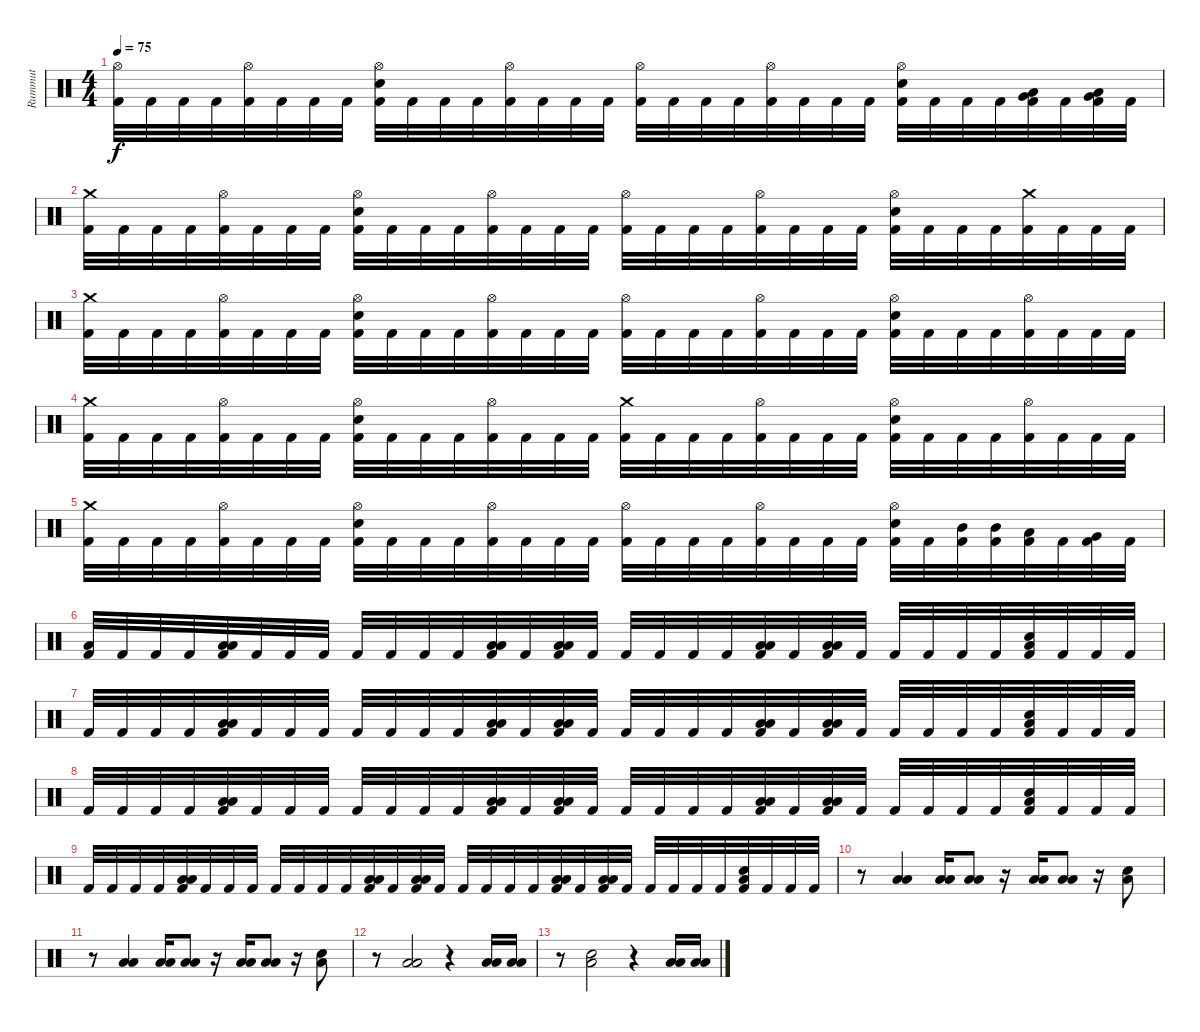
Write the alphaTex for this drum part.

\track ("Rummut" "Rummut") {instrument percussion}
\staff {score}
\articulation defaults
\ts (4 4)
\tempo 75
\clef neutral
\ks c
("Hi-Hat (open)" "Kick (hit) 2").32{dy f} "Kick (hit) 2".32 "Kick (hit) 2".32 "Kick (hit) 2".32 ("Hi-Hat (open)" "Kick (hit) 2").32 "Kick (hit) 2".32 "Kick (hit) 2".32 "Kick (hit) 2".32 ("Hi-Hat (open)" "Snare (hit) 2" "Kick (hit) 2").32 "Kick (hit) 2".32 "Kick (hit) 2".32 "Kick (hit) 2".32 ("Hi-Hat (open)" "Kick (hit) 2").32 "Kick (hit) 2".32 "Kick (hit) 2".32 "Kick (hit) 2".32 ("Hi-Hat (open)" "Kick (hit) 2").32 "Kick (hit) 2".32 "Kick (hit) 2".32 "Kick (hit) 2".32 ("Hi-Hat (open)" "Kick (hit) 2").32 "Kick (hit) 2".32 "Kick (hit) 2".32 "Kick (hit) 2".32 ("Hi-Hat (open)" "Snare (hit) 2" "Kick (hit) 2").32 "Kick (hit) 2".32 "Kick (hit) 2".32 "Kick (hit) 2".32 ("Very Low Tom (hit)" "Low Floor Tom (hit)" "Kick (hit) 2").32 "Kick (hit) 2".32 ("Very Low Tom (hit)" "Low Floor Tom (hit)" "Kick (hit) 2").32 "Kick (hit) 2".32 |
("Crash medium (hit)" "Kick (hit) 2").32 "Kick (hit) 2".32 "Kick (hit) 2".32 "Kick (hit) 2".32 ("Hi-Hat (open)" "Kick (hit) 2").32 "Kick (hit) 2".32 "Kick (hit) 2".32 "Kick (hit) 2".32 ("Hi-Hat (open)" "Snare (hit) 2" "Kick (hit) 2").32 "Kick (hit) 2".32 "Kick (hit) 2".32 "Kick (hit) 2".32 ("Hi-Hat (open)" "Kick (hit) 2").32 "Kick (hit) 2".32 "Kick (hit) 2".32 "Kick (hit) 2".32 ("Hi-Hat (open)" "Kick (hit) 2").32 "Kick (hit) 2".32 "Kick (hit) 2".32 "Kick (hit) 2".32 ("Hi-Hat (open)" "Kick (hit) 2").32 "Kick (hit) 2".32 "Kick (hit) 2".32 "Kick (hit) 2".32 ("Hi-Hat (open)" "Snare (hit) 2" "Kick (hit) 2").32 "Kick (hit) 2".32 "Kick (hit) 2".32 "Kick (hit) 2".32 ("Crash medium (hit)" "Kick (hit) 2").32 "Kick (hit) 2".32 "Kick (hit) 2".32 "Kick (hit) 2".32 |
("Crash medium (hit)" "Kick (hit) 2").32 "Kick (hit) 2".32 "Kick (hit) 2".32 "Kick (hit) 2".32 ("Hi-Hat (open)" "Kick (hit) 2").32 "Kick (hit) 2".32 "Kick (hit) 2".32 "Kick (hit) 2".32 ("Hi-Hat (open)" "Snare (hit) 2" "Kick (hit) 2").32 "Kick (hit) 2".32 "Kick (hit) 2".32 "Kick (hit) 2".32 ("Hi-Hat (open)" "Kick (hit) 2").32 "Kick (hit) 2".32 "Kick (hit) 2".32 "Kick (hit) 2".32 ("Hi-Hat (open)" "Kick (hit) 2").32 "Kick (hit) 2".32 "Kick (hit) 2".32 "Kick (hit) 2".32 ("Hi-Hat (open)" "Kick (hit) 2").32 "Kick (hit) 2".32 "Kick (hit) 2".32 "Kick (hit) 2".32 ("Hi-Hat (open)" "Snare (hit) 2" "Kick (hit) 2").32 "Kick (hit) 2".32 "Kick (hit) 2".32 "Kick (hit) 2".32 ("Hi-Hat (open)" "Kick (hit) 2").32 "Kick (hit) 2".32 "Kick (hit) 2".32 "Kick (hit) 2".32 |
("Crash medium (hit)" "Kick (hit) 2").32 "Kick (hit) 2".32 "Kick (hit) 2".32 "Kick (hit) 2".32 ("Hi-Hat (open)" "Kick (hit) 2").32 "Kick (hit) 2".32 "Kick (hit) 2".32 "Kick (hit) 2".32 ("Hi-Hat (open)" "Snare (hit) 2" "Kick (hit) 2").32 "Kick (hit) 2".32 "Kick (hit) 2".32 "Kick (hit) 2".32 ("Hi-Hat (open)" "Kick (hit) 2").32 "Kick (hit) 2".32 "Kick (hit) 2".32 "Kick (hit) 2".32 ("Crash medium (hit)" "Kick (hit) 2").32 "Kick (hit) 2".32 "Kick (hit) 2".32 "Kick (hit) 2".32 ("Hi-Hat (open)" "Kick (hit) 2").32 "Kick (hit) 2".32 "Kick (hit) 2".32 "Kick (hit) 2".32 ("Hi-Hat (open)" "Snare (hit) 2" "Kick (hit) 2").32 "Kick (hit) 2".32 "Kick (hit) 2".32 "Kick (hit) 2".32 ("Hi-Hat (open)" "Kick (hit) 2").32 "Kick (hit) 2".32 "Kick (hit) 2".32 "Kick (hit) 2".32 |
("Crash medium (hit)" "Kick (hit) 2").32 "Kick (hit) 2".32 "Kick (hit) 2".32 "Kick (hit) 2".32 ("Hi-Hat (open)" "Kick (hit) 2").32 "Kick (hit) 2".32 "Kick (hit) 2".32 "Kick (hit) 2".32 ("Hi-Hat (open)" "Snare (hit) 2" "Kick (hit) 2").32 "Kick (hit) 2".32 "Kick (hit) 2".32 "Kick (hit) 2".32 ("Hi-Hat (open)" "Kick (hit) 2").32 "Kick (hit) 2".32 "Kick (hit) 2".32 "Kick (hit) 2".32 ("Hi-Hat (open)" "Kick (hit) 2").32 "Kick (hit) 2".32 "Kick (hit) 2".32 "Kick (hit) 2".32 ("Hi-Hat (open)" "Kick (hit) 2").32 "Kick (hit) 2".32 "Kick (hit) 2".32 "Kick (hit) 2".32 ("Hi-Hat (open)" "Snare (hit) 2" "Kick (hit) 2").32 "Kick (hit) 2".32 ("Mid Tom (hit)" "Kick (hit) 2").32 ("Mid Tom (hit)" "Kick (hit) 2").32 ("Low Tom (hit)" "Kick (hit) 2").32 "Kick (hit) 2".32 ("Very Low Tom (hit)" "Kick (hit) 2").32 "Kick (hit) 2".32 |
("Low Floor Tom (hit)" "Kick (hit) 2").32 "Kick (hit) 2".32 "Kick (hit) 2".32 "Kick (hit) 2".32 ("Low Tom (hit)" "Low Floor Tom (hit)" "Kick (hit) 2").32 "Kick (hit) 2".32 "Kick (hit) 2".32 "Kick (hit) 2".32 "Kick (hit) 2".32 "Kick (hit) 2".32 "Kick (hit) 2".32 "Kick (hit) 2".32 ("Low Tom (hit)" "Low Floor Tom (hit)" "Kick (hit) 2").32 "Kick (hit) 2".32 ("Low Tom (hit)" "Low Floor Tom (hit)" "Kick (hit) 2").32 "Kick (hit) 2".32 "Kick (hit) 2".32 "Kick (hit) 2".32 "Kick (hit) 2".32 "Kick (hit) 2".32 ("Low Tom (hit)" "Low Floor Tom (hit)" "Kick (hit) 2").32 "Kick (hit) 2".32 ("Low Tom (hit)" "Low Floor Tom (hit)" "Kick (hit) 2").32 "Kick (hit) 2".32 "Kick (hit) 2".32 "Kick (hit) 2".32 "Kick (hit) 2".32 "Kick (hit) 2".32 ("Snare (hit) 2" "Low Floor Tom (hit)" "Kick (hit) 2").32 "Kick (hit) 2".32 "Kick (hit) 2".32 "Kick (hit) 2".32 |
"Kick (hit) 2".32 "Kick (hit) 2".32 "Kick (hit) 2".32 "Kick (hit) 2".32 ("Low Tom (hit)" "Low Floor Tom (hit)" "Kick (hit) 2").32 "Kick (hit) 2".32 "Kick (hit) 2".32 "Kick (hit) 2".32 "Kick (hit) 2".32 "Kick (hit) 2".32 "Kick (hit) 2".32 "Kick (hit) 2".32 ("Low Tom (hit)" "Low Floor Tom (hit)" "Kick (hit) 2").32 "Kick (hit) 2".32 ("Low Tom (hit)" "Low Floor Tom (hit)" "Kick (hit) 2").32 "Kick (hit) 2".32 "Kick (hit) 2".32 "Kick (hit) 2".32 "Kick (hit) 2".32 "Kick (hit) 2".32 ("Low Tom (hit)" "Low Floor Tom (hit)" "Kick (hit) 2").32 "Kick (hit) 2".32 ("Low Tom (hit)" "Low Floor Tom (hit)" "Kick (hit) 2").32 "Kick (hit) 2".32 "Kick (hit) 2".32 "Kick (hit) 2".32 "Kick (hit) 2".32 "Kick (hit) 2".32 ("Snare (hit) 2" "Low Floor Tom (hit)" "Kick (hit) 2").32 "Kick (hit) 2".32 "Kick (hit) 2".32 "Kick (hit) 2".32 |
"Kick (hit) 2".32 "Kick (hit) 2".32 "Kick (hit) 2".32 "Kick (hit) 2".32 ("Low Tom (hit)" "Low Floor Tom (hit)" "Kick (hit) 2").32 "Kick (hit) 2".32 "Kick (hit) 2".32 "Kick (hit) 2".32 "Kick (hit) 2".32 "Kick (hit) 2".32 "Kick (hit) 2".32 "Kick (hit) 2".32 ("Low Tom (hit)" "Low Floor Tom (hit)" "Kick (hit) 2").32 "Kick (hit) 2".32 ("Low Tom (hit)" "Low Floor Tom (hit)" "Kick (hit) 2").32 "Kick (hit) 2".32 "Kick (hit) 2".32 "Kick (hit) 2".32 "Kick (hit) 2".32 "Kick (hit) 2".32 ("Low Tom (hit)" "Low Floor Tom (hit)" "Kick (hit) 2").32 "Kick (hit) 2".32 ("Low Tom (hit)" "Low Floor Tom (hit)" "Kick (hit) 2").32 "Kick (hit) 2".32 "Kick (hit) 2".32 "Kick (hit) 2".32 "Kick (hit) 2".32 "Kick (hit) 2".32 ("Snare (hit) 2" "Low Floor Tom (hit)" "Kick (hit) 2").32 "Kick (hit) 2".32 "Kick (hit) 2".32 "Kick (hit) 2".32 |
"Kick (hit) 2".32 "Kick (hit) 2".32 "Kick (hit) 2".32 "Kick (hit) 2".32 ("Low Tom (hit)" "Low Floor Tom (hit)" "Kick (hit) 2").32 "Kick (hit) 2".32 "Kick (hit) 2".32 "Kick (hit) 2".32 "Kick (hit) 2".32 "Kick (hit) 2".32 "Kick (hit) 2".32 "Kick (hit) 2".32 ("Low Tom (hit)" "Low Floor Tom (hit)" "Kick (hit) 2").32 "Kick (hit) 2".32 ("Low Tom (hit)" "Low Floor Tom (hit)" "Kick (hit) 2").32 "Kick (hit) 2".32 "Kick (hit) 2".32 "Kick (hit) 2".32 "Kick (hit) 2".32 "Kick (hit) 2".32 ("Low Tom (hit)" "Low Floor Tom (hit)" "Kick (hit) 2").32 "Kick (hit) 2".32 ("Low Tom (hit)" "Low Floor Tom (hit)" "Kick (hit) 2").32 "Kick (hit) 2".32 "Kick (hit) 2".32 "Kick (hit) 2".32 "Kick (hit) 2".32 "Kick (hit) 2".32 ("Snare (hit) 2" "Low Floor Tom (hit)" "Kick (hit) 2").32 "Kick (hit) 2".32 "Kick (hit) 2".32 "Kick (hit) 2".32 |
r.8 ("Low Tom (hit)" "Low Floor Tom (hit)").4 ("Low Tom (hit)" "Low Floor Tom (hit)").16 ("Low Tom (hit)" "Low Floor Tom (hit)").8 r.16 ("Low Tom (hit)" "Low Floor Tom (hit)").16 ("Low Tom (hit)" "Low Floor Tom (hit)").8 r.16 ("Snare (hit) 2" "Low Floor Tom (hit)").8 |
r.8 ("Low Tom (hit)" "Low Floor Tom (hit)").4 ("Low Tom (hit)" "Low Floor Tom (hit)").16 ("Low Tom (hit)" "Low Floor Tom (hit)").8 r.16 ("Low Tom (hit)" "Low Floor Tom (hit)").16 ("Low Tom (hit)" "Low Floor Tom (hit)").8 r.16 ("Snare (hit) 2" "Low Floor Tom (hit)").8 |
r.8 ("Low Tom (hit)" "Low Floor Tom (hit)").2 r.4 ("Low Tom (hit)" "Low Floor Tom (hit)").16 ("Low Tom (hit)" "Low Floor Tom (hit)").16 |
r.8 ("Snare (hit) 2" "Low Floor Tom (hit)").2 r.4 ("Low Tom (hit)" "Low Floor Tom (hit)").16 ("Low Tom (hit)" "Low Floor Tom (hit)").16
